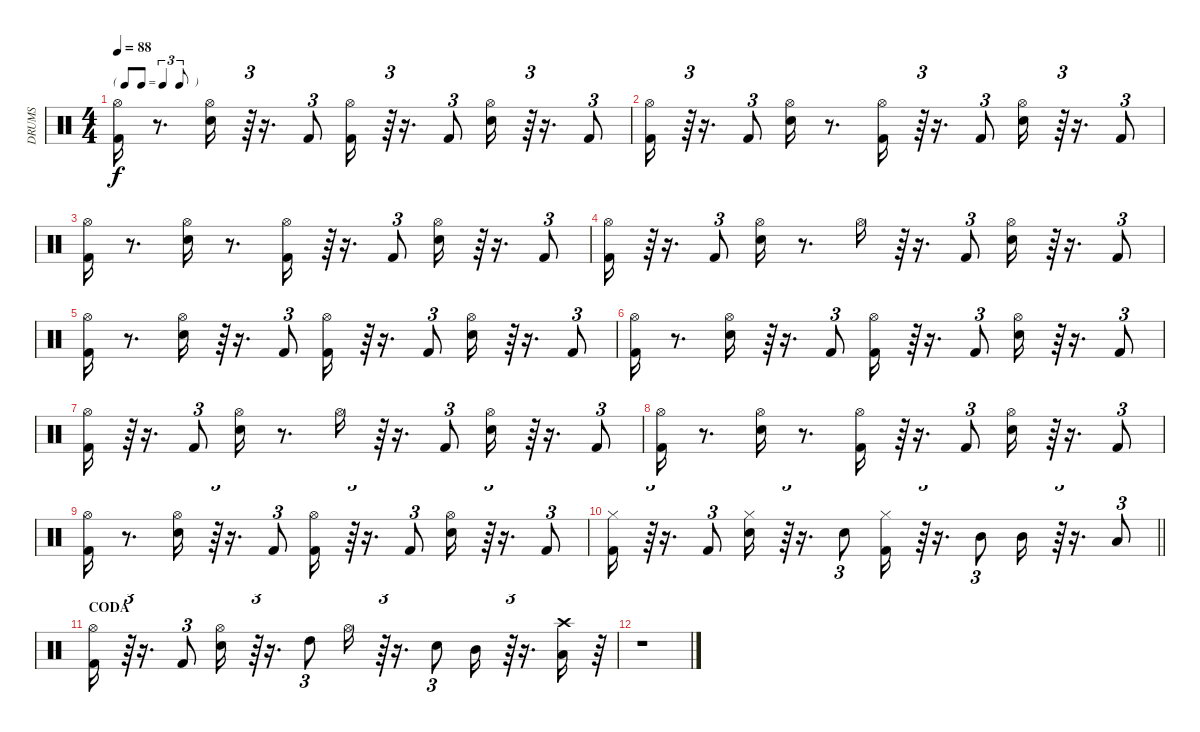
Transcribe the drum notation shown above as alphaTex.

\track ("DRUMS" "DRUMS") {instrument percussion}
\staff {score}
\articulation defaults
\ts (4 4)
\tf triplet8th
\tempo 88
\clef neutral
\ks c
("Kick (hit) 2" "Hi-Hat (open)").16{dy f} r.8{d} ("Snare (hit) 2" "Hi-Hat (open)").16 r.64{tu (3 2)} r.16{d} "Kick (hit) 2".8{tu (3 2)} ("Kick (hit) 2" "Hi-Hat (open)").16 r.64{tu (3 2)} r.16{d} "Kick (hit) 2".8{tu (3 2)} ("Snare (hit) 2" "Hi-Hat (open)").16 r.64{tu (3 2)} r.16{d} "Kick (hit) 2".8{tu (3 2)} |
("Kick (hit) 2" "Hi-Hat (open)").16 r.64{tu (3 2)} r.16{d} "Kick (hit) 2".8{tu (3 2)} ("Snare (hit) 2" "Hi-Hat (open)").16 r.8{d} ("Kick (hit) 2" "Hi-Hat (open)").16 r.64{tu (3 2)} r.16{d} "Kick (hit) 2".8{tu (3 2)} ("Snare (hit) 2" "Hi-Hat (open)").16 r.64{tu (3 2)} r.16{d} "Kick (hit) 2".8{tu (3 2)} |
("Kick (hit) 2" "Hi-Hat (open)").16 r.8{d} ("Snare (hit) 2" "Hi-Hat (open)").16 r.8{d} ("Kick (hit) 2" "Hi-Hat (open)").16 r.64{tu (3 2)} r.16{d} "Kick (hit) 2".8{tu (3 2)} ("Snare (hit) 2" "Hi-Hat (open)").16 r.64{tu (3 2)} r.16{d} "Kick (hit) 2".8{tu (3 2)} |
("Kick (hit) 2" "Hi-Hat (open)").16 r.64{tu (3 2)} r.16{d} "Kick (hit) 2".8{tu (3 2)} ("Snare (hit) 2" "Hi-Hat (open)").16 r.8{d} "Hi-Hat (open)".16 r.64{tu (3 2)} r.16{d} "Kick (hit) 2".8{tu (3 2)} ("Snare (hit) 2" "Hi-Hat (open)").16 r.64{tu (3 2)} r.16{d} "Kick (hit) 2".8{tu (3 2)} |
("Kick (hit) 2" "Hi-Hat (open)").16 r.8{d} ("Snare (hit) 2" "Hi-Hat (open)").16 r.64{tu (3 2)} r.16{d} "Kick (hit) 2".8{tu (3 2)} ("Kick (hit) 2" "Hi-Hat (open)").16 r.64{tu (3 2)} r.16{d} "Kick (hit) 2".8{tu (3 2)} ("Snare (hit) 2" "Hi-Hat (open)").16 r.64{tu (3 2)} r.16{d} "Kick (hit) 2".8{tu (3 2)} |
("Kick (hit) 2" "Hi-Hat (open)").16 r.8{d} ("Snare (hit) 2" "Hi-Hat (open)").16 r.64{tu (3 2)} r.16{d} "Kick (hit) 2".8{tu (3 2)} ("Kick (hit) 2" "Hi-Hat (open)").16 r.64{tu (3 2)} r.16{d} "Kick (hit) 2".8{tu (3 2)} ("Snare (hit) 2" "Hi-Hat (open)").16 r.64{tu (3 2)} r.16{d} "Kick (hit) 2".8{tu (3 2)} |
("Kick (hit) 2" "Hi-Hat (open)").16 r.64{tu (3 2)} r.16{d} "Kick (hit) 2".8{tu (3 2)} ("Snare (hit) 2" "Hi-Hat (open)").16 r.8{d} "Hi-Hat (open)".16 r.64{tu (3 2)} r.16{d} "Kick (hit) 2".8{tu (3 2)} ("Snare (hit) 2" "Hi-Hat (open)").16 r.64{tu (3 2)} r.16{d} "Kick (hit) 2".8{tu (3 2)} |
("Kick (hit) 2" "Hi-Hat (open)").16 r.8{d} ("Snare (hit) 2" "Hi-Hat (open)").16 r.8{d} ("Kick (hit) 2" "Hi-Hat (open)").16 r.64{tu (3 2)} r.16{d} "Kick (hit) 2".8{tu (3 2)} ("Snare (hit) 2" "Hi-Hat (open)").16 r.64{tu (3 2)} r.16{d} "Kick (hit) 2".8{tu (3 2)} |
("Kick (hit) 2" "Hi-Hat (open)").16 r.8{d} ("Snare (hit) 2" "Hi-Hat (open)").16 r.64{tu (3 2)} r.16{d} "Kick (hit) 2".8{tu (3 2)} ("Kick (hit) 2" "Hi-Hat (open)").16 r.64{tu (3 2)} r.16{d} "Kick (hit) 2".8{tu (3 2)} ("Snare (hit) 2" "Hi-Hat (open)").16 r.64{tu (3 2)} r.16{d} "Kick (hit) 2".8{tu (3 2)} |
\barLineRight lightlight
("Kick (hit) 2" "Hi-Hat (closed)").16 r.64{tu (3 2)} r.16{d} "Kick (hit) 2".8{tu (3 2)} ("Snare (hit) 2" "Hi-Hat (closed)").16 r.64{tu (3 2)} r.16{d} "Snare (hit) 2".8{tu (3 2)} ("Kick (hit) 2" "Hi-Hat (closed)").16 r.64{tu (3 2)} r.16{d} "Mid Tom (hit)".8{tu (3 2)} "Mid Tom (hit)".16 r.64{tu (3 2)} r.16{d} "Low Floor Tom (hit)".8{tu (3 2)} |
\section ("" "CODA")
("Kick (hit) 2" "Hi-Hat (open)").16 r.64{tu (3 2)} r.16{d} "Kick (hit) 2".8{tu (3 2)} ("Snare (hit) 2" "Hi-Hat (open)").16 r.64{tu (3 2)} r.16{d} "High Tom (hit)".8{tu (3 2)} "Hi-Hat (open)".16 r.64{tu (3 2)} r.16{d} "Snare (hit) 2".8{tu (3 2)} "Mid Tom (hit)".16 r.64{tu (3 2)} r.16{d} ("Low Floor Tom (hit)" "Crash high (hit)").16 r.64 |
r.1
